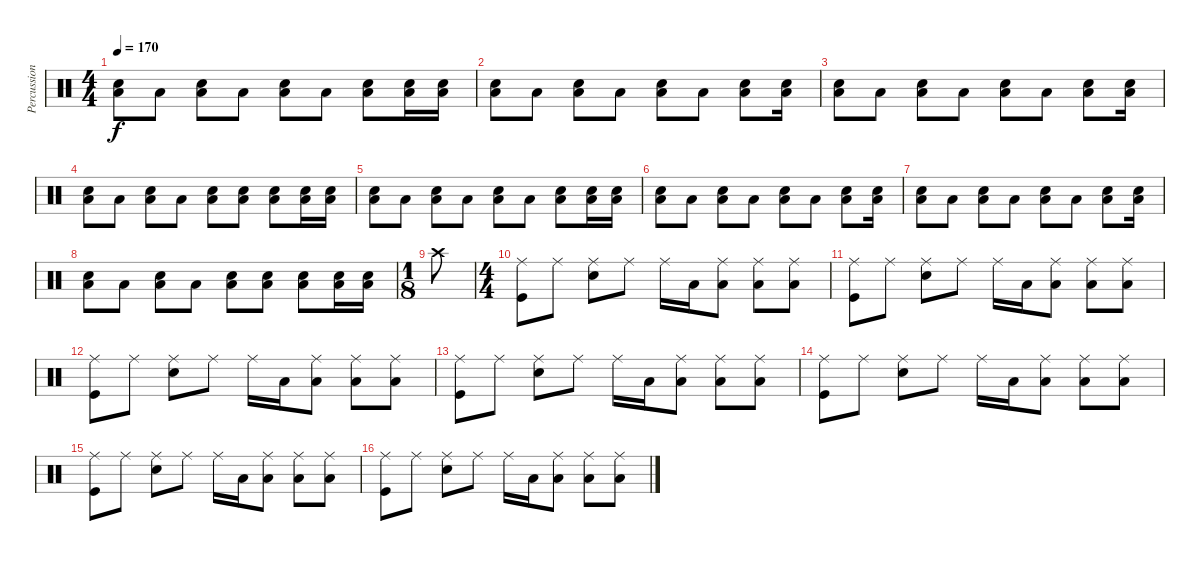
\track ("Percussion" "Percussion") {instrument percussion}
\staff {score}
\articulation defaults
\ts (4 4)
\tempo 170
\clef neutral
\ks c
("Low Floor Tom (hit)" "Electric Snare (hit)").8{dy f} "Low Floor Tom (hit)".8 ("Low Floor Tom (hit)" "Electric Snare (hit)").8 "Low Floor Tom (hit)".8 ("Low Floor Tom (hit)" "Electric Snare (hit)").8 "Low Floor Tom (hit)".8 ("Low Floor Tom (hit)" "Electric Snare (hit)").8 ("Low Floor Tom (hit)" "Electric Snare (hit)").16 ("Low Floor Tom (hit)" "Electric Snare (hit)").16 |
("Low Floor Tom (hit)" "Electric Snare (hit)").8 "Low Floor Tom (hit)".8 ("Low Floor Tom (hit)" "Electric Snare (hit)").8 "Low Floor Tom (hit)".8 ("Low Floor Tom (hit)" "Electric Snare (hit)").8 "Low Floor Tom (hit)".8 ("Low Floor Tom (hit)" "Electric Snare (hit)").8 ("Low Floor Tom (hit)" "Electric Snare (hit)").16 |
("Low Floor Tom (hit)" "Electric Snare (hit)").8 "Low Floor Tom (hit)".8 ("Low Floor Tom (hit)" "Electric Snare (hit)").8 "Low Floor Tom (hit)".8 ("Low Floor Tom (hit)" "Electric Snare (hit)").8 "Low Floor Tom (hit)".8 ("Low Floor Tom (hit)" "Electric Snare (hit)").8 ("Low Floor Tom (hit)" "Electric Snare (hit)").16 |
("Low Floor Tom (hit)" "Electric Snare (hit)").8 "Low Floor Tom (hit)".8 ("Low Floor Tom (hit)" "Electric Snare (hit)").8 "Low Floor Tom (hit)".8 ("Low Floor Tom (hit)" "Electric Snare (hit)").8 ("Low Floor Tom (hit)" "Electric Snare (hit)").8 ("Low Floor Tom (hit)" "Electric Snare (hit)").8 ("Low Floor Tom (hit)" "Electric Snare (hit)").16 ("Low Floor Tom (hit)" "Electric Snare (hit)").16 |
("Low Floor Tom (hit)" "Electric Snare (hit)").8 "Low Floor Tom (hit)".8 ("Low Floor Tom (hit)" "Electric Snare (hit)").8 "Low Floor Tom (hit)".8 ("Low Floor Tom (hit)" "Electric Snare (hit)").8 "Low Floor Tom (hit)".8 ("Low Floor Tom (hit)" "Electric Snare (hit)").8 ("Low Floor Tom (hit)" "Electric Snare (hit)").16 ("Low Floor Tom (hit)" "Electric Snare (hit)").16 |
("Low Floor Tom (hit)" "Electric Snare (hit)").8 "Low Floor Tom (hit)".8 ("Low Floor Tom (hit)" "Electric Snare (hit)").8 "Low Floor Tom (hit)".8 ("Low Floor Tom (hit)" "Electric Snare (hit)").8 "Low Floor Tom (hit)".8 ("Low Floor Tom (hit)" "Electric Snare (hit)").8 ("Low Floor Tom (hit)" "Electric Snare (hit)").16 |
("Low Floor Tom (hit)" "Electric Snare (hit)").8 "Low Floor Tom (hit)".8 ("Low Floor Tom (hit)" "Electric Snare (hit)").8 "Low Floor Tom (hit)".8 ("Low Floor Tom (hit)" "Electric Snare (hit)").8 "Low Floor Tom (hit)".8 ("Low Floor Tom (hit)" "Electric Snare (hit)").8 ("Low Floor Tom (hit)" "Electric Snare (hit)").16 |
("Low Floor Tom (hit)" "Electric Snare (hit)").8 "Low Floor Tom (hit)".8 ("Low Floor Tom (hit)" "Electric Snare (hit)").8 "Low Floor Tom (hit)".8 ("Low Floor Tom (hit)" "Electric Snare (hit)").8 ("Low Floor Tom (hit)" "Electric Snare (hit)").8 ("Low Floor Tom (hit)" "Electric Snare (hit)").8 ("Low Floor Tom (hit)" "Electric Snare (hit)").16 ("Low Floor Tom (hit)" "Electric Snare (hit)").16 |
\ts (1 8)
"Crash high (hit)".8 |
\ts (4 4)
("Ride (middle)" "Kick (hit)").8 "Ride (middle)".8 ("Ride (middle)" "Electric Snare (hit)").8 "Ride (middle)".8 "Ride (middle)".16 "Low Floor Tom (hit)".16 ("Ride (middle)" "Low Floor Tom (hit)").8 ("Ride (middle)" "Low Floor Tom (hit)").8 ("Ride (middle)" "Low Floor Tom (hit)").8 |
("Ride (middle)" "Kick (hit)").8 "Ride (middle)".8 ("Ride (middle)" "Electric Snare (hit)").8 "Ride (middle)".8 "Ride (middle)".16 "Low Floor Tom (hit)".16 ("Ride (middle)" "Low Floor Tom (hit)").8 ("Ride (middle)" "Low Floor Tom (hit)").8 ("Ride (middle)" "Low Floor Tom (hit)").8 |
("Ride (middle)" "Kick (hit)").8 "Ride (middle)".8 ("Ride (middle)" "Electric Snare (hit)").8 "Ride (middle)".8 "Ride (middle)".16 "Low Floor Tom (hit)".16 ("Ride (middle)" "Low Floor Tom (hit)").8 ("Ride (middle)" "Low Floor Tom (hit)").8 ("Ride (middle)" "Low Floor Tom (hit)").8 |
("Ride (middle)" "Kick (hit)").8 "Ride (middle)".8 ("Ride (middle)" "Electric Snare (hit)").8 "Ride (middle)".8 "Ride (middle)".16 "Low Floor Tom (hit)".16 ("Ride (middle)" "Low Floor Tom (hit)").8 ("Ride (middle)" "Low Floor Tom (hit)").8 ("Ride (middle)" "Low Floor Tom (hit)").8 |
("Ride (middle)" "Kick (hit)").8 "Ride (middle)".8 ("Ride (middle)" "Electric Snare (hit)").8 "Ride (middle)".8 "Ride (middle)".16 "Low Floor Tom (hit)".16 ("Ride (middle)" "Low Floor Tom (hit)").8 ("Ride (middle)" "Low Floor Tom (hit)").8 ("Ride (middle)" "Low Floor Tom (hit)").8 |
("Ride (middle)" "Kick (hit)").8 "Ride (middle)".8 ("Ride (middle)" "Electric Snare (hit)").8 "Ride (middle)".8 "Ride (middle)".16 "Low Floor Tom (hit)".16 ("Ride (middle)" "Low Floor Tom (hit)").8 ("Ride (middle)" "Low Floor Tom (hit)").8 ("Ride (middle)" "Low Floor Tom (hit)").8 |
("Ride (middle)" "Kick (hit)").8 "Ride (middle)".8 ("Ride (middle)" "Electric Snare (hit)").8 "Ride (middle)".8 "Ride (middle)".16 "Low Floor Tom (hit)".16 ("Ride (middle)" "Low Floor Tom (hit)").8 ("Ride (middle)" "Low Floor Tom (hit)").8 ("Ride (middle)" "Low Floor Tom (hit)").8
